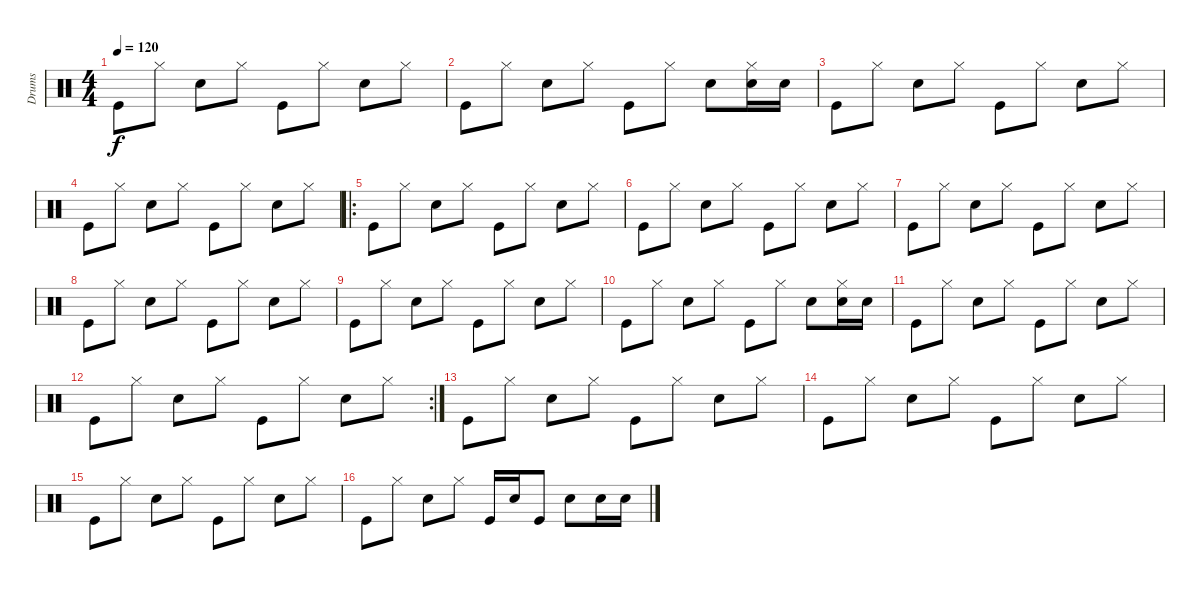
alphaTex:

\track ("Drums" "Drums") {instrument percussion}
\staff {score}
\articulation defaults
\ts (4 4)
\tempo 120
\clef neutral
\ks c "Kick (hit)".8{dy f} "Hi-Hat (closed)".8 "Snare (hit) 2".8 "Hi-Hat (closed)".8 "Kick (hit)".8 "Hi-Hat (closed)".8 "Snare (hit) 2".8 "Hi-Hat (closed)".8
|
"Kick (hit)".8 "Hi-Hat (closed)".8 "Snare (hit) 2".8 "Hi-Hat (closed)".8 "Kick (hit)".8 "Hi-Hat (closed)".8 "Snare (hit) 2".8 ("Hi-Hat (closed)" "Snare (hit) 2").16 "Snare (hit) 2".16 |
"Kick (hit)".8 "Hi-Hat (closed)".8 "Snare (hit) 2".8 "Hi-Hat (closed)".8 "Kick (hit)".8 "Hi-Hat (closed)".8 "Snare (hit) 2".8 "Hi-Hat (closed)".8 |
"Kick (hit)".8 "Hi-Hat (closed)".8 "Snare (hit) 2".8 "Hi-Hat (closed)".8 "Kick (hit)".8 "Hi-Hat (closed)".8 "Snare (hit) 2".8 "Hi-Hat (closed)".8 |
\ro "Kick (hit)".8 "Hi-Hat (closed)".8 "Snare (hit) 2".8 "Hi-Hat (closed)".8 "Kick (hit)".8 "Hi-Hat (closed)".8 "Snare (hit) 2".8 "Hi-Hat (closed)".8
|
"Kick (hit)".8 "Hi-Hat (closed)".8 "Snare (hit) 2".8 "Hi-Hat (closed)".8 "Kick (hit)".8 "Hi-Hat (closed)".8 "Snare (hit) 2".8 "Hi-Hat (closed)".8 |
"Kick (hit)".8 "Hi-Hat (closed)".8 "Snare (hit) 2".8 "Hi-Hat (closed)".8 "Kick (hit)".8 "Hi-Hat (closed)".8 "Snare (hit) 2".8 "Hi-Hat (closed)".8 |
"Kick (hit)".8 "Hi-Hat (closed)".8 "Snare (hit) 2".8 "Hi-Hat (closed)".8 "Kick (hit)".8 "Hi-Hat (closed)".8 "Snare (hit) 2".8 "Hi-Hat (closed)".8 |
"Kick (hit)".8 "Hi-Hat (closed)".8 "Snare (hit) 2".8 "Hi-Hat (closed)".8 "Kick (hit)".8 "Hi-Hat (closed)".8 "Snare (hit) 2".8 "Hi-Hat (closed)".8 |
"Kick (hit)".8 "Hi-Hat (closed)".8 "Snare (hit) 2".8 "Hi-Hat (closed)".8 "Kick (hit)".8 "Hi-Hat (closed)".8 "Snare (hit) 2".8 ("Hi-Hat (closed)" "Snare (hit) 2").16 "Snare (hit) 2".16 |
"Kick (hit)".8 "Hi-Hat (closed)".8 "Snare (hit) 2".8 "Hi-Hat (closed)".8 "Kick (hit)".8 "Hi-Hat (closed)".8 "Snare (hit) 2".8 "Hi-Hat (closed)".8 |
\rc 2 "Kick (hit)".8 "Hi-Hat (closed)".8 "Snare (hit) 2".8 "Hi-Hat (closed)".8 "Kick (hit)".8 "Hi-Hat (closed)".8 "Snare (hit) 2".8 "Hi-Hat (closed)".8
|
"Kick (hit)".8 "Hi-Hat (closed)".8 "Snare (hit) 2".8 "Hi-Hat (closed)".8 "Kick (hit)".8 "Hi-Hat (closed)".8 "Snare (hit) 2".8 "Hi-Hat (closed)".8 |
"Kick (hit)".8 "Hi-Hat (closed)".8 "Snare (hit) 2".8 "Hi-Hat (closed)".8 "Kick (hit)".8 "Hi-Hat (closed)".8 "Snare (hit) 2".8 "Hi-Hat (closed)".8 |
"Kick (hit)".8 "Hi-Hat (closed)".8 "Snare (hit) 2".8 "Hi-Hat (closed)".8 "Kick (hit)".8 "Hi-Hat (closed)".8 "Snare (hit) 2".8 "Hi-Hat (closed)".8 |
"Kick (hit)".8 "Hi-Hat (closed)".8 "Snare (hit) 2".8 "Hi-Hat (closed)".8 "Kick (hit)".16 "Snare (hit) 2".16 "Kick (hit)".8 "Snare (hit) 2".8 "Snare (hit) 2".16 "Snare (hit) 2".16
